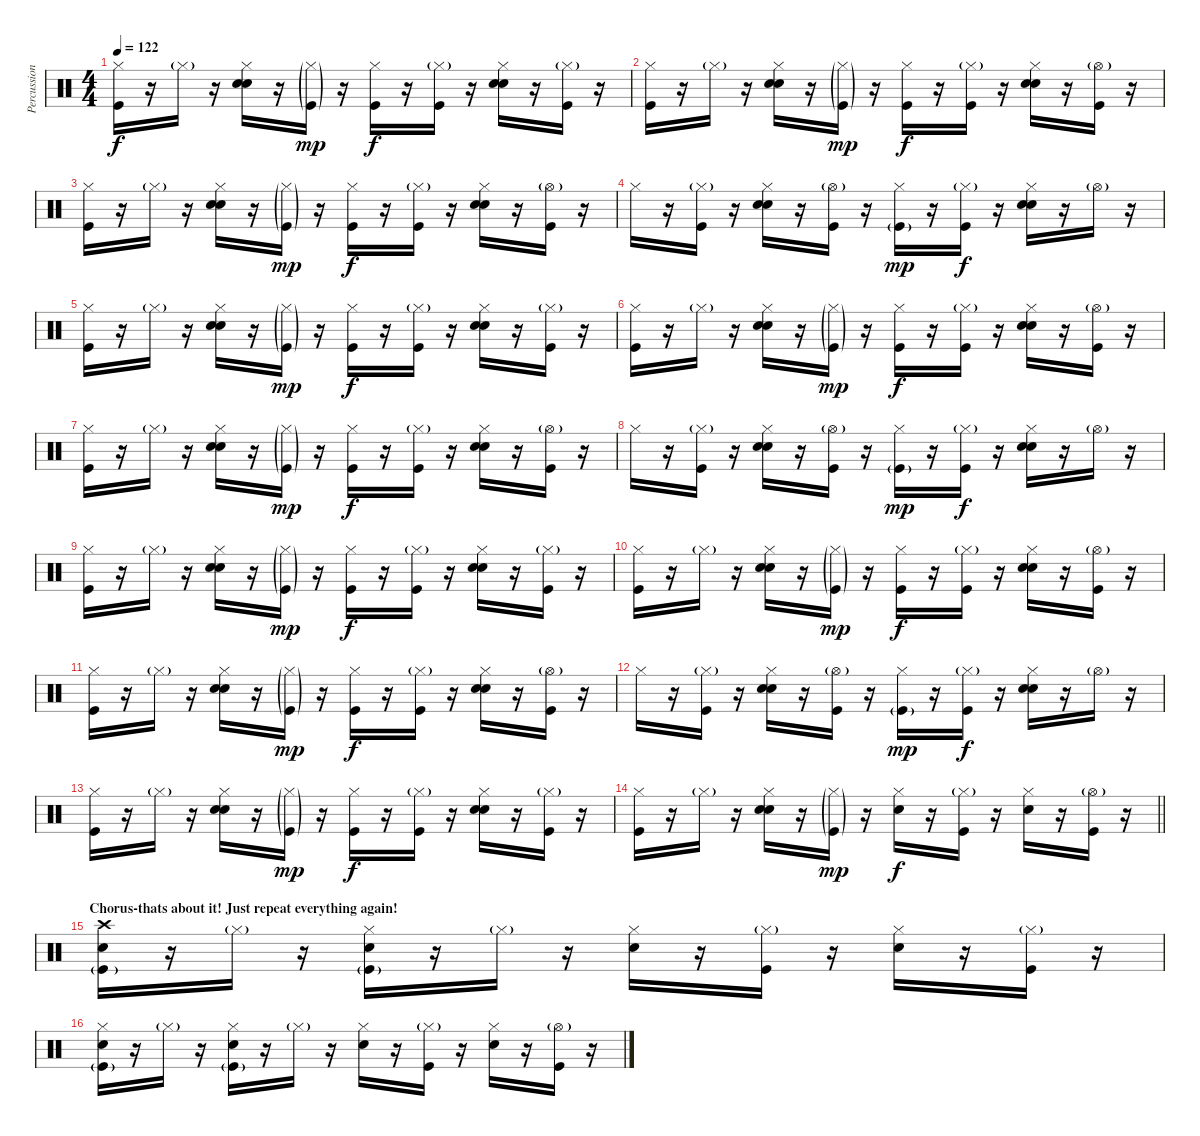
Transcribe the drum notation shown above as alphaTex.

\track ("Percussion" "Percussion") {instrument percussion bank 177}
\staff {score}
\articulation defaults
\ts (4 4)
\tempo 122
\clef neutral
\ks c
("Hi-Hat (closed)" "Kick (hit)").16{dy f} r.16 "Hi-Hat (closed)"{g}.16 r.16 ("Hi-Hat (closed)" "Hand Clap (hit)" "Snare (hit) 2").16 r.16 ("Hi-Hat (closed)"{g} "Kick (hit)"{g}).16{dy mp} r.16 ("Hi-Hat (closed)" "Kick (hit)").16{dy f} r.16 ("Hi-Hat (closed)"{g} "Kick (hit)").16 r.16 ("Hi-Hat (closed)" "Hand Clap (hit)" "Snare (hit) 2").16 r.16 ("Hi-Hat (closed)"{g} "Kick (hit)").16 r.16 |
("Hi-Hat (closed)" "Kick (hit)").16 r.16 "Hi-Hat (closed)"{g}.16 r.16 ("Hi-Hat (closed)" "Hand Clap (hit)" "Snare (hit) 2").16 r.16 ("Hi-Hat (closed)"{g} "Kick (hit)"{g}).16{dy mp} r.16 ("Hi-Hat (closed)" "Kick (hit)").16{dy f} r.16 ("Hi-Hat (closed)"{g} "Kick (hit)").16 r.16 ("Hi-Hat (closed)" "Hand Clap (hit)" "Snare (hit) 2").16 r.16 ("Hi-Hat (open)"{g} "Kick (hit)").16 r.16 |
("Hi-Hat (closed)" "Kick (hit)").16 r.16 "Hi-Hat (closed)"{g}.16 r.16 ("Hi-Hat (closed)" "Hand Clap (hit)" "Snare (hit) 2").16 r.16 ("Hi-Hat (closed)"{g} "Kick (hit)"{g}).16{dy mp} r.16 ("Hi-Hat (closed)" "Kick (hit)").16{dy f} r.16 ("Hi-Hat (closed)"{g} "Kick (hit)").16 r.16 ("Hi-Hat (closed)" "Hand Clap (hit)" "Snare (hit) 2").16 r.16 ("Hi-Hat (open)"{g} "Kick (hit)").16 r.16 |
"Hi-Hat (closed)".16 r.16 ("Hi-Hat (closed)"{g} "Kick (hit)").16 r.16 ("Hi-Hat (closed)" "Hand Clap (hit)" "Snare (hit) 2").16 r.16 ("Hi-Hat (open)"{g} "Kick (hit)").16 r.16 ("Hi-Hat (closed)" "Kick (hit)"{g}).16{dy mp} r.16 ("Hi-Hat (closed)"{g} "Kick (hit)").16{dy f} r.16 ("Hi-Hat (closed)" "Hand Clap (hit)" "Snare (hit) 2").16 r.16 "Hi-Hat (open)"{g}.16 r.16 |
("Hi-Hat (closed)" "Kick (hit)").16 r.16 "Hi-Hat (closed)"{g}.16 r.16 ("Hi-Hat (closed)" "Hand Clap (hit)" "Snare (hit) 2").16 r.16 ("Hi-Hat (closed)"{g} "Kick (hit)"{g}).16{dy mp} r.16 ("Hi-Hat (closed)" "Kick (hit)").16{dy f} r.16 ("Hi-Hat (closed)"{g} "Kick (hit)").16 r.16 ("Hi-Hat (closed)" "Hand Clap (hit)" "Snare (hit) 2").16 r.16 ("Hi-Hat (closed)"{g} "Kick (hit)").16 r.16 |
("Hi-Hat (closed)" "Kick (hit)").16 r.16 "Hi-Hat (closed)"{g}.16 r.16 ("Hi-Hat (closed)" "Hand Clap (hit)" "Snare (hit) 2").16 r.16 ("Hi-Hat (closed)"{g} "Kick (hit)"{g}).16{dy mp} r.16 ("Hi-Hat (closed)" "Kick (hit)").16{dy f} r.16 ("Hi-Hat (closed)"{g} "Kick (hit)").16 r.16 ("Hi-Hat (closed)" "Hand Clap (hit)" "Snare (hit) 2").16 r.16 ("Hi-Hat (open)"{g} "Kick (hit)").16 r.16 |
("Hi-Hat (closed)" "Kick (hit)").16 r.16 "Hi-Hat (closed)"{g}.16 r.16 ("Hi-Hat (closed)" "Hand Clap (hit)" "Snare (hit) 2").16 r.16 ("Hi-Hat (closed)"{g} "Kick (hit)"{g}).16{dy mp} r.16 ("Hi-Hat (closed)" "Kick (hit)").16{dy f} r.16 ("Hi-Hat (closed)"{g} "Kick (hit)").16 r.16 ("Hi-Hat (closed)" "Hand Clap (hit)" "Snare (hit) 2").16 r.16 ("Hi-Hat (open)"{g} "Kick (hit)").16 r.16 |
"Hi-Hat (closed)".16 r.16 ("Hi-Hat (closed)"{g} "Kick (hit)").16 r.16 ("Hi-Hat (closed)" "Hand Clap (hit)" "Snare (hit) 2").16 r.16 ("Hi-Hat (open)"{g} "Kick (hit)").16 r.16 ("Hi-Hat (closed)" "Kick (hit)"{g}).16{dy mp} r.16 ("Hi-Hat (closed)"{g} "Kick (hit)").16{dy f} r.16 ("Hi-Hat (closed)" "Hand Clap (hit)" "Snare (hit) 2").16 r.16 "Hi-Hat (open)"{g}.16 r.16 |
("Hi-Hat (closed)" "Kick (hit)").16 r.16 "Hi-Hat (closed)"{g}.16 r.16 ("Hi-Hat (closed)" "Hand Clap (hit)" "Snare (hit) 2").16 r.16 ("Hi-Hat (closed)"{g} "Kick (hit)"{g}).16{dy mp} r.16 ("Hi-Hat (closed)" "Kick (hit)").16{dy f} r.16 ("Hi-Hat (closed)"{g} "Kick (hit)").16 r.16 ("Hi-Hat (closed)" "Hand Clap (hit)" "Snare (hit) 2").16 r.16 ("Hi-Hat (closed)"{g} "Kick (hit)").16 r.16 |
("Hi-Hat (closed)" "Kick (hit)").16 r.16 "Hi-Hat (closed)"{g}.16 r.16 ("Hi-Hat (closed)" "Hand Clap (hit)" "Snare (hit) 2").16 r.16 ("Hi-Hat (closed)"{g} "Kick (hit)"{g}).16{dy mp} r.16 ("Hi-Hat (closed)" "Kick (hit)").16{dy f} r.16 ("Hi-Hat (closed)"{g} "Kick (hit)").16 r.16 ("Hi-Hat (closed)" "Hand Clap (hit)" "Snare (hit) 2").16 r.16 ("Hi-Hat (open)"{g} "Kick (hit)").16 r.16 |
("Hi-Hat (closed)" "Kick (hit)").16 r.16 "Hi-Hat (closed)"{g}.16 r.16 ("Hi-Hat (closed)" "Hand Clap (hit)" "Snare (hit) 2").16 r.16 ("Hi-Hat (closed)"{g} "Kick (hit)"{g}).16{dy mp} r.16 ("Hi-Hat (closed)" "Kick (hit)").16{dy f} r.16 ("Hi-Hat (closed)"{g} "Kick (hit)").16 r.16 ("Hi-Hat (closed)" "Hand Clap (hit)" "Snare (hit) 2").16 r.16 ("Hi-Hat (open)"{g} "Kick (hit)").16 r.16 |
"Hi-Hat (closed)".16 r.16 ("Hi-Hat (closed)"{g} "Kick (hit)").16 r.16 ("Hi-Hat (closed)" "Hand Clap (hit)" "Snare (hit) 2").16 r.16 ("Hi-Hat (open)"{g} "Kick (hit)").16 r.16 ("Hi-Hat (closed)" "Kick (hit)"{g}).16{dy mp} r.16 ("Hi-Hat (closed)"{g} "Kick (hit)").16{dy f} r.16 ("Hi-Hat (closed)" "Hand Clap (hit)" "Snare (hit) 2").16 r.16 "Hi-Hat (open)"{g}.16 r.16 |
("Hi-Hat (closed)" "Kick (hit)").16 r.16 "Hi-Hat (closed)"{g}.16 r.16 ("Hi-Hat (closed)" "Hand Clap (hit)" "Snare (hit) 2").16 r.16 ("Hi-Hat (closed)"{g} "Kick (hit)"{g}).16{dy mp} r.16 ("Hi-Hat (closed)" "Kick (hit)").16{dy f} r.16 ("Hi-Hat (closed)"{g} "Kick (hit)").16 r.16 ("Hi-Hat (closed)" "Hand Clap (hit)" "Snare (hit) 2").16 r.16 ("Hi-Hat (closed)"{g} "Kick (hit)").16 r.16 |
\barLineRight lightlight
("Hi-Hat (closed)" "Kick (hit)").16 r.16 "Hi-Hat (closed)"{g}.16 r.16 ("Hi-Hat (closed)" "Hand Clap (hit)" "Snare (hit) 2").16 r.16 ("Hi-Hat (closed)"{g} "Kick (hit)"{g}).16{dy mp} r.16 ("Hi-Hat (closed)" "Snare (hit) 2").16{dy f} r.16 ("Hi-Hat (closed)"{g} "Kick (hit)").16 r.16 ("Hi-Hat (closed)" "Snare (hit) 2").16 r.16 ("Hi-Hat (open)"{g} "Kick (hit)").16 r.16 |
\section ("" "Chorus-thats about it! Just repeat everything again!")
("Crash high (hit)" "Snare (hit) 2" "Kick (hit)"{g}).16 r.16 "Hi-Hat (closed)"{g}.16 r.16 ("Hi-Hat (closed)" "Snare (hit) 2" "Kick (hit)"{g}).16 r.16 "Hi-Hat (closed)"{g}.16 r.16 ("Hi-Hat (closed)" "Snare (hit) 2").16 r.16 ("Hi-Hat (closed)"{g} "Kick (hit)").16 r.16 ("Hi-Hat (closed)" "Snare (hit) 2").16 r.16 ("Hi-Hat (closed)"{g} "Kick (hit)").16 r.16 |
("Hi-Hat (closed)" "Snare (hit) 2" "Kick (hit)"{g}).16 r.16 "Hi-Hat (closed)"{g}.16 r.16 ("Hi-Hat (closed)" "Snare (hit) 2" "Kick (hit)"{g}).16 r.16 "Hi-Hat (closed)"{g}.16 r.16 ("Hi-Hat (closed)" "Snare (hit) 2").16 r.16 ("Hi-Hat (closed)"{g} "Kick (hit)").16 r.16 ("Hi-Hat (closed)" "Snare (hit) 2").16 r.16 ("Hi-Hat (open)"{g} "Kick (hit)").16 r.16
